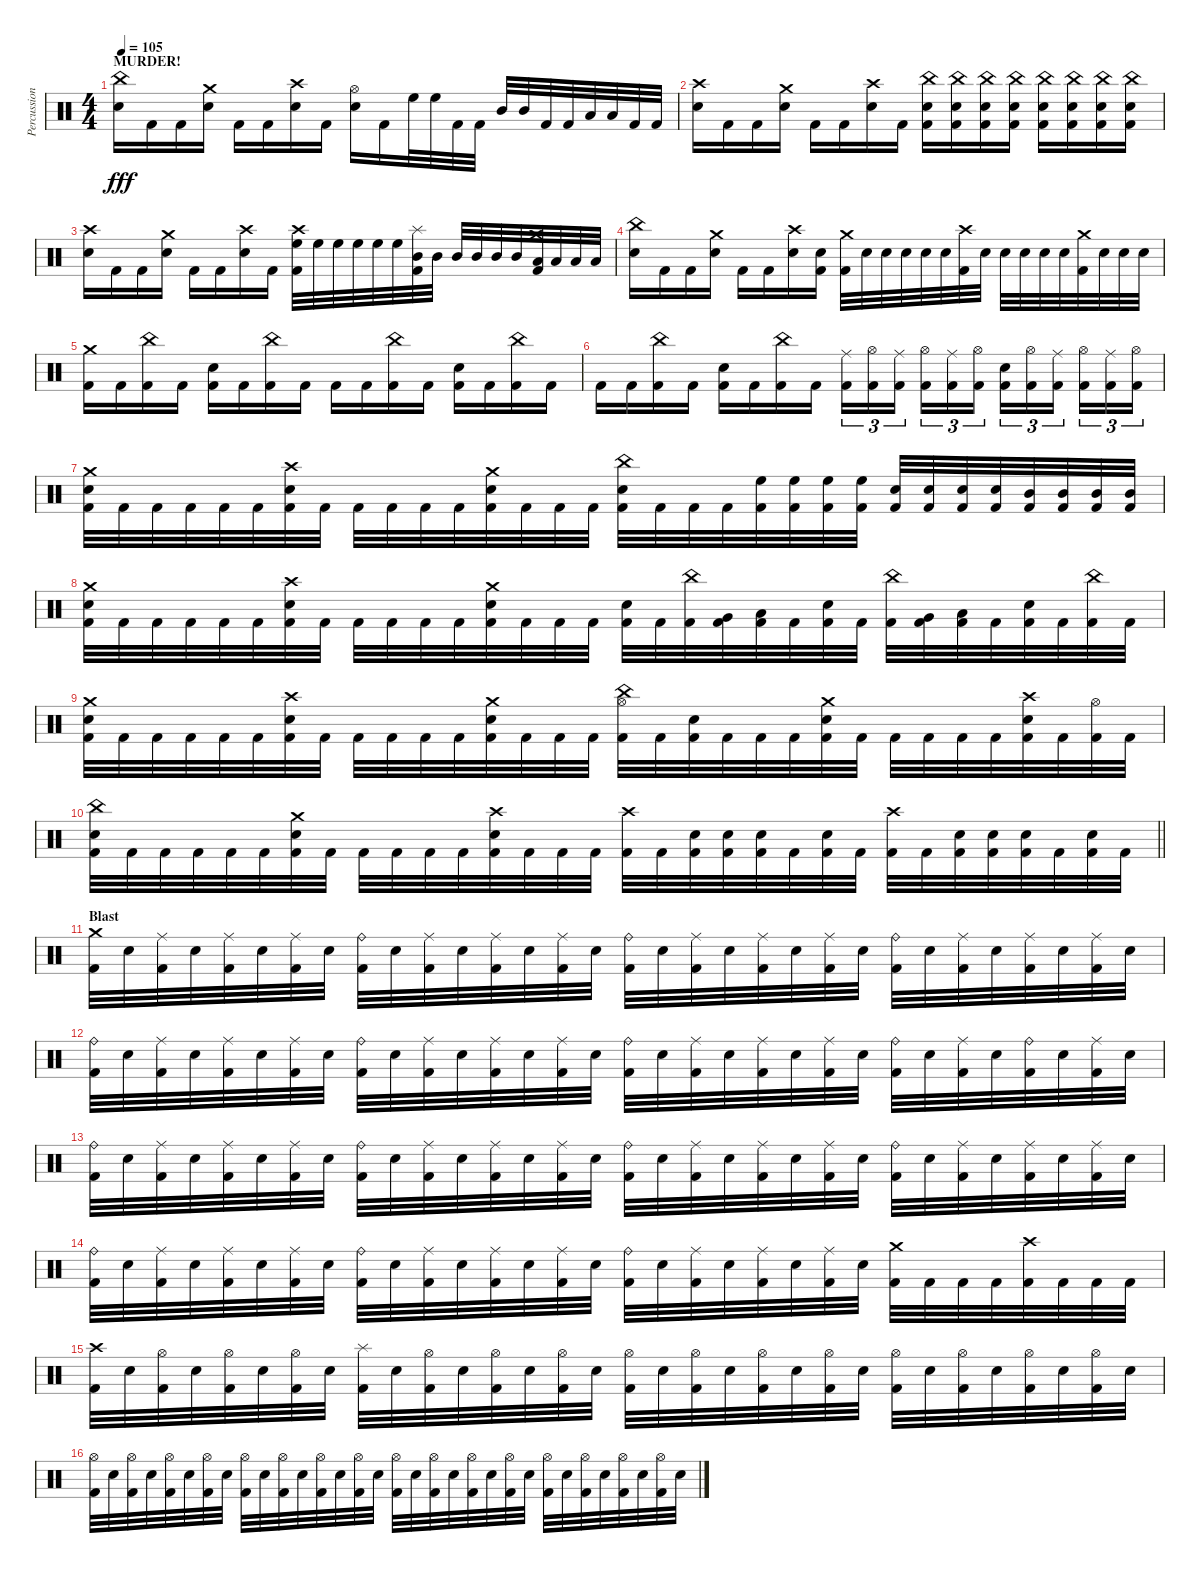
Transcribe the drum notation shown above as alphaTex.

\track ("Percussion" "Percussion") {instrument percussion}
\staff {score}
\articulation defaults
\ts (4 4)
\section ("" "MURDER!")
\tempo 105
\clef neutral
\ks c
("China (hit)" "Snare (hit) 2").16{dy fff} "Kick (hit) 2".16 "Kick (hit) 2".16 ("Crash medium (hit)" "Snare (hit) 2").16 "Kick (hit) 2".16 "Kick (hit) 2".16 ("Crash high (hit)" "Snare (hit) 2").16 "Kick (hit) 2".16 ("Snare (hit) 2" "Hi-Hat (open)").16 "Kick (hit) 2".16 "High Floor Tom (hit)".32 "High Floor Tom (hit)".32 "Kick (hit) 2".32 "Kick (hit) 2".32 "Mid Tom (hit)".32 "Mid Tom (hit)".32 "Kick (hit) 2".32 "Kick (hit) 2".32 "Low Tom (hit)".32 "Low Tom (hit)".32 "Kick (hit) 2".32 "Kick (hit) 2".32 |
("Crash high (hit)" "Snare (hit) 2").16 "Kick (hit) 2".16 "Kick (hit) 2".16 ("Crash medium (hit)" "Snare (hit) 2").16 "Kick (hit) 2".16 "Kick (hit) 2".16 ("Crash high (hit)" "Snare (hit) 2").16 "Kick (hit) 2".16 ("China (hit)" "Snare (hit) 2" "Kick (hit) 2").16 ("China (hit)" "Snare (hit) 2" "Kick (hit) 2").16 ("China (hit)" "Snare (hit) 2" "Kick (hit) 2").16 ("China (hit)" "Snare (hit) 2" "Kick (hit) 2").16 ("China (hit)" "Snare (hit) 2" "Kick (hit) 2").16 ("China (hit)" "Snare (hit) 2" "Kick (hit) 2").16 ("China (hit)" "Snare (hit) 2" "Kick (hit) 2").16 ("China (hit)" "Snare (hit) 2" "Kick (hit) 2").16 |
("Crash high (hit)" "Snare (hit) 2").16 "Kick (hit) 2".16 "Kick (hit) 2".16 ("Crash medium (hit)" "Snare (hit) 2").16 "Kick (hit) 2".16 "Kick (hit) 2".16 ("Crash high (hit)" "Snare (hit) 2").16 "Kick (hit) 2".16 ("Crash high (hit)" "High Floor Tom (hit)" "Kick (hit) 2").32 "High Floor Tom (hit)".32 "High Floor Tom (hit)".32 "High Floor Tom (hit)".32 "High Floor Tom (hit)".32 "High Floor Tom (hit)".32 ("Splash (hit)" "Mid Tom (hit)" "Kick (hit) 2").32 "Mid Tom (hit)".32 "Mid Tom (hit)".32 "Mid Tom (hit)".32 "Mid Tom (hit)".32 "Mid Tom (hit)".32 ("Crash medium (hit)" "Low Tom (hit)" "Kick (hit) 2").32 "Low Tom (hit)".32 "Low Tom (hit)".32 "Low Tom (hit)".32 |
("China (hit)" "Snare (hit) 2").16 "Kick (hit) 2".16 "Kick (hit) 2".16 ("Crash medium (hit)" "Snare (hit) 2").16 "Kick (hit) 2".16 "Kick (hit) 2".16 ("Crash high (hit)" "Snare (hit) 2").16 ("Snare (hit) 2" "Kick (hit) 2").16 ("Crash medium (hit)" "Kick (hit) 2").32 "Snare (hit) 2".32 "Snare (hit) 2".32 "Snare (hit) 2".32 "Snare (hit) 2".32 "Snare (hit) 2".32 ("Crash high (hit)" "Kick (hit) 2").32 "Snare (hit) 2".32 "Snare (hit) 2".32 "Snare (hit) 2".32 "Snare (hit) 2".32 "Snare (hit) 2".32 ("Crash medium (hit)" "Kick (hit) 2").32 "Snare (hit) 2".32 "Snare (hit) 2".32 "Snare (hit) 2".32 |
("Crash medium (hit)" "Kick (hit) 2").16 "Kick (hit) 2".16 ("China (hit)" "Kick (hit) 2").16 "Kick (hit) 2".16 ("Snare (hit) 2" "Kick (hit) 2").16 "Kick (hit) 2".16 ("China (hit)" "Kick (hit) 2").16 "Kick (hit) 2".16 "Kick (hit) 2".16 "Kick (hit) 2".16 ("China (hit)" "Kick (hit) 2").16 "Kick (hit) 2".16 ("Snare (hit) 2" "Kick (hit) 2").16 "Kick (hit) 2".16 ("China (hit)" "Kick (hit) 2").16 "Kick (hit) 2".16 |
"Kick (hit) 2".16 "Kick (hit) 2".16 ("China (hit)" "Kick (hit) 2").16 "Kick (hit) 2".16 ("Snare (hit) 2" "Kick (hit) 2").16 "Kick (hit) 2".16 ("China (hit)" "Kick (hit) 2").16 "Kick (hit) 2".16 ("Ride (middle)" "Kick (hit) 2").16{tu (3 2)} ("Hi-Hat (open)" "Kick (hit) 2").16{tu (3 2)} ("Ride (middle)" "Kick (hit) 2").16{tu (3 2) beam splitsecondary} ("Hi-Hat (open)" "Kick (hit) 2").16{tu (3 2)} ("Ride (middle)" "Kick (hit) 2").16{tu (3 2)} ("Hi-Hat (open)" "Kick (hit) 2").16{tu (3 2)} ("Snare (hit) 2" "Kick (hit) 2").16{tu (3 2)} ("Hi-Hat (open)" "Kick (hit) 2").16{tu (3 2)} ("Ride (middle)" "Kick (hit) 2").16{tu (3 2) beam splitsecondary} ("Hi-Hat (open)" "Kick (hit) 2").16{tu (3 2)} ("Ride (middle)" "Kick (hit) 2").16{tu (3 2)} ("Hi-Hat (open)" "Kick (hit) 2").16{tu (3 2)} |
("Crash medium (hit)" "Snare (hit) 2" "Kick (hit) 2").32 "Kick (hit) 2".32 "Kick (hit) 2".32 "Kick (hit) 2".32 "Kick (hit) 2".32 "Kick (hit) 2".32 ("Crash high (hit)" "Snare (hit) 2" "Kick (hit) 2").32 "Kick (hit) 2".32 "Kick (hit) 2".32 "Kick (hit) 2".32 "Kick (hit) 2".32 "Kick (hit) 2".32 ("Crash medium (hit)" "Snare (hit) 2" "Kick (hit) 2").32 "Kick (hit) 2".32 "Kick (hit) 2".32 "Kick (hit) 2".32 ("China (hit)" "Snare (hit) 2" "Kick (hit) 2").32 "Kick (hit) 2".32 "Kick (hit) 2".32 "Kick (hit) 2".32 ("High Floor Tom (hit)" "Kick (hit) 2").32 ("High Floor Tom (hit)" "Kick (hit) 2").32 ("High Floor Tom (hit)" "Kick (hit) 2").32 ("High Floor Tom (hit)" "Kick (hit) 2").32 ("Snare (hit) 2" "Kick (hit) 2").32 ("Snare (hit) 2" "Kick (hit) 2").32 ("Snare (hit) 2" "Kick (hit) 2").32 ("Snare (hit) 2" "Kick (hit) 2").32 ("Mid Tom (hit)" "Kick (hit) 2").32 ("Mid Tom (hit)" "Kick (hit) 2").32 ("Mid Tom (hit)" "Kick (hit) 2").32 ("Mid Tom (hit)" "Kick (hit) 2").32 |
("Crash medium (hit)" "Snare (hit) 2" "Kick (hit) 2").32 "Kick (hit) 2".32 "Kick (hit) 2".32 "Kick (hit) 2".32 "Kick (hit) 2".32 "Kick (hit) 2".32 ("Crash high (hit)" "Snare (hit) 2" "Kick (hit) 2").32 "Kick (hit) 2".32 "Kick (hit) 2".32 "Kick (hit) 2".32 "Kick (hit) 2".32 "Kick (hit) 2".32 ("Crash medium (hit)" "Snare (hit) 2" "Kick (hit) 2").32 "Kick (hit) 2".32 "Kick (hit) 2".32 "Kick (hit) 2".32 ("Snare (hit) 2" "Kick (hit) 2").32 "Kick (hit) 2".32 ("China (hit)" "Kick (hit) 2").32 ("Very Low Tom (hit)" "Kick (hit) 2").32 ("Low Floor Tom (hit)" "Kick (hit) 2").32 "Kick (hit) 2".32 ("Snare (hit) 2" "Kick (hit) 2").32 "Kick (hit) 2".32 ("China (hit)" "Kick (hit) 2").32 ("Very Low Tom (hit)" "Kick (hit) 2").32 ("Low Floor Tom (hit)" "Kick (hit) 2").32 "Kick (hit) 2".32 ("Snare (hit) 2" "Kick (hit) 2").32 "Kick (hit) 2".32 ("China (hit)" "Kick (hit) 2").32 "Kick (hit) 2".32 |
("Crash medium (hit)" "Snare (hit) 2" "Kick (hit) 2").32 "Kick (hit) 2".32 "Kick (hit) 2".32 "Kick (hit) 2".32 "Kick (hit) 2".32 "Kick (hit) 2".32 ("Crash high (hit)" "Snare (hit) 2" "Kick (hit) 2").32 "Kick (hit) 2".32 "Kick (hit) 2".32 "Kick (hit) 2".32 "Kick (hit) 2".32 "Kick (hit) 2".32 ("Crash medium (hit)" "Snare (hit) 2" "Kick (hit) 2").32 "Kick (hit) 2".32 "Kick (hit) 2".32 "Kick (hit) 2".32 ("China (hit)" "Hi-Hat (open)" "Kick (hit) 2").32 "Kick (hit) 2".32 ("Snare (hit) 2" "Kick (hit) 2").32 "Kick (hit) 2".32 "Kick (hit) 2".32 "Kick (hit) 2".32 ("Crash medium (hit)" "Snare (hit) 2" "Kick (hit) 2").32 "Kick (hit) 2".32 "Kick (hit) 2".32 "Kick (hit) 2".32 "Kick (hit) 2".32 "Kick (hit) 2".32 ("Crash high (hit)" "Snare (hit) 2" "Kick (hit) 2").32 "Kick (hit) 2".32 ("Hi-Hat (open)" "Kick (hit) 2").32 "Kick (hit) 2".32 |
\barLineRight lightlight
("China (hit)" "Snare (hit) 2" "Kick (hit) 2").32 "Kick (hit) 2".32 "Kick (hit) 2".32 "Kick (hit) 2".32 "Kick (hit) 2".32 "Kick (hit) 2".32 ("Crash medium (hit)" "Snare (hit) 2" "Kick (hit) 2").32 "Kick (hit) 2".32 "Kick (hit) 2".32 "Kick (hit) 2".32 "Kick (hit) 2".32 "Kick (hit) 2".32 ("Crash high (hit)" "Snare (hit) 2" "Kick (hit) 2").32 "Kick (hit) 2".32 "Kick (hit) 2".32 "Kick (hit) 2".32 ("Crash high (hit)" "Kick (hit) 2").32 "Kick (hit) 2".32 ("Snare (hit) 2" "Kick (hit) 2").32 ("Snare (hit) 2" "Kick (hit) 2").32 ("Snare (hit) 2" "Kick (hit) 2").32 "Kick (hit) 2".32 ("Snare (hit) 2" "Kick (hit) 2").32 "Kick (hit) 2".32 ("Crash high (hit)" "Kick (hit) 2").32 "Kick (hit) 2".32 ("Snare (hit) 2" "Kick (hit) 2").32 ("Snare (hit) 2" "Kick (hit) 2").32 ("Snare (hit) 2" "Kick (hit) 2").32 "Kick (hit) 2".32 ("Snare (hit) 2" "Kick (hit) 2").32 "Kick (hit) 2".32 |
\section ("" "Blast")
("Crash medium (hit)" "Kick (hit) 2").32 "Snare (hit) 2".32 ("Ride (middle)" "Kick (hit) 2").32 "Snare (hit) 2".32 ("Ride (middle)" "Kick (hit) 2").32 "Snare (hit) 2".32 ("Ride (middle)" "Kick (hit) 2").32 "Snare (hit) 2".32 ("Ride (bell)" "Kick (hit) 2").32 "Snare (hit) 2".32 ("Ride (middle)" "Kick (hit) 2").32 "Snare (hit) 2".32 ("Ride (middle)" "Kick (hit) 2").32 "Snare (hit) 2".32 ("Ride (middle)" "Kick (hit) 2").32 "Snare (hit) 2".32 ("Ride (bell)" "Kick (hit) 2").32 "Snare (hit) 2".32 ("Ride (middle)" "Kick (hit) 2").32 "Snare (hit) 2".32 ("Ride (middle)" "Kick (hit) 2").32 "Snare (hit) 2".32 ("Ride (middle)" "Kick (hit) 2").32 "Snare (hit) 2".32 ("Ride (bell)" "Kick (hit) 2").32 "Snare (hit) 2".32 ("Ride (middle)" "Kick (hit) 2").32 "Snare (hit) 2".32 ("Ride (middle)" "Kick (hit) 2").32 "Snare (hit) 2".32 ("Ride (middle)" "Kick (hit) 2").32 "Snare (hit) 2".32 |
("Ride (bell)" "Kick (hit) 2").32 "Snare (hit) 2".32 ("Ride (middle)" "Kick (hit) 2").32 "Snare (hit) 2".32 ("Ride (middle)" "Kick (hit) 2").32 "Snare (hit) 2".32 ("Ride (middle)" "Kick (hit) 2").32 "Snare (hit) 2".32 ("Ride (bell)" "Kick (hit) 2").32 "Snare (hit) 2".32 ("Ride (middle)" "Kick (hit) 2").32 "Snare (hit) 2".32 ("Ride (middle)" "Kick (hit) 2").32 "Snare (hit) 2".32 ("Ride (middle)" "Kick (hit) 2").32 "Snare (hit) 2".32 ("Ride (bell)" "Kick (hit) 2").32 "Snare (hit) 2".32 ("Ride (middle)" "Kick (hit) 2").32 "Snare (hit) 2".32 ("Ride (middle)" "Kick (hit) 2").32 "Snare (hit) 2".32 ("Ride (middle)" "Kick (hit) 2").32 "Snare (hit) 2".32 ("Ride (bell)" "Kick (hit) 2").32 "Snare (hit) 2".32 ("Ride (middle)" "Kick (hit) 2").32 "Snare (hit) 2".32 ("Ride (bell)" "Kick (hit) 2").32 "Snare (hit) 2".32 ("Ride (middle)" "Kick (hit) 2").32 "Snare (hit) 2".32 |
("Ride (bell)" "Kick (hit) 2").32 "Snare (hit) 2".32 ("Ride (middle)" "Kick (hit) 2").32 "Snare (hit) 2".32 ("Ride (middle)" "Kick (hit) 2").32 "Snare (hit) 2".32 ("Ride (middle)" "Kick (hit) 2").32 "Snare (hit) 2".32 ("Ride (bell)" "Kick (hit) 2").32 "Snare (hit) 2".32 ("Ride (middle)" "Kick (hit) 2").32 "Snare (hit) 2".32 ("Ride (middle)" "Kick (hit) 2").32 "Snare (hit) 2".32 ("Ride (middle)" "Kick (hit) 2").32 "Snare (hit) 2".32 ("Ride (bell)" "Kick (hit) 2").32 "Snare (hit) 2".32 ("Ride (middle)" "Kick (hit) 2").32 "Snare (hit) 2".32 ("Ride (middle)" "Kick (hit) 2").32 "Snare (hit) 2".32 ("Ride (middle)" "Kick (hit) 2").32 "Snare (hit) 2".32 ("Ride (bell)" "Kick (hit) 2").32 "Snare (hit) 2".32 ("Ride (middle)" "Kick (hit) 2").32 "Snare (hit) 2".32 ("Ride (middle)" "Kick (hit) 2").32 "Snare (hit) 2".32 ("Ride (middle)" "Kick (hit) 2").32 "Snare (hit) 2".32 |
("Ride (bell)" "Kick (hit) 2").32 "Snare (hit) 2".32 ("Ride (middle)" "Kick (hit) 2").32 "Snare (hit) 2".32 ("Ride (middle)" "Kick (hit) 2").32 "Snare (hit) 2".32 ("Ride (middle)" "Kick (hit) 2").32 "Snare (hit) 2".32 ("Ride (bell)" "Kick (hit) 2").32 "Snare (hit) 2".32 ("Ride (middle)" "Kick (hit) 2").32 "Snare (hit) 2".32 ("Ride (middle)" "Kick (hit) 2").32 "Snare (hit) 2".32 ("Ride (middle)" "Kick (hit) 2").32 "Snare (hit) 2".32 ("Ride (bell)" "Kick (hit) 2").32 "Snare (hit) 2".32 ("Ride (middle)" "Kick (hit) 2").32 "Snare (hit) 2".32 ("Ride (middle)" "Kick (hit) 2").32 "Snare (hit) 2".32 ("Ride (middle)" "Kick (hit) 2").32 "Snare (hit) 2".32 ("Crash medium (hit)" "Kick (hit) 2").32 "Kick (hit) 2".32 "Kick (hit) 2".32 "Kick (hit) 2".32 ("Crash high (hit)" "Kick (hit) 2").32 "Kick (hit) 2".32 "Kick (hit) 2".32 "Kick (hit) 2".32 |
("Crash high (hit)" "Kick (hit) 2").32 "Snare (hit) 2".32 ("Hi-Hat (open)" "Kick (hit) 2").32 "Snare (hit) 2".32 ("Hi-Hat (open)" "Kick (hit) 2").32 "Snare (hit) 2".32 ("Hi-Hat (open)" "Kick (hit) 2").32 "Snare (hit) 2".32 ("Splash (hit)" "Kick (hit) 2").32 "Snare (hit) 2".32 ("Hi-Hat (open)" "Kick (hit) 2").32 "Snare (hit) 2".32 ("Hi-Hat (open)" "Kick (hit) 2").32 "Snare (hit) 2".32 ("Hi-Hat (open)" "Kick (hit) 2").32 "Snare (hit) 2".32 ("Hi-Hat (open)" "Kick (hit) 2").32 "Snare (hit) 2".32 ("Hi-Hat (open)" "Kick (hit) 2").32 "Snare (hit) 2".32 ("Hi-Hat (open)" "Kick (hit) 2").32 "Snare (hit) 2".32 ("Hi-Hat (open)" "Kick (hit) 2").32 "Snare (hit) 2".32 ("Hi-Hat (open)" "Kick (hit) 2").32 "Snare (hit) 2".32 ("Hi-Hat (open)" "Kick (hit) 2").32 "Snare (hit) 2".32 ("Hi-Hat (open)" "Kick (hit) 2").32 "Snare (hit) 2".32 ("Hi-Hat (open)" "Kick (hit) 2").32 "Snare (hit) 2".32 |
("Hi-Hat (open)" "Kick (hit) 2").32 "Snare (hit) 2".32 ("Hi-Hat (open)" "Kick (hit) 2").32 "Snare (hit) 2".32 ("Hi-Hat (open)" "Kick (hit) 2").32 "Snare (hit) 2".32 ("Hi-Hat (open)" "Kick (hit) 2").32 "Snare (hit) 2".32 ("Hi-Hat (open)" "Kick (hit) 2").32 "Snare (hit) 2".32 ("Hi-Hat (open)" "Kick (hit) 2").32 "Snare (hit) 2".32 ("Hi-Hat (open)" "Kick (hit) 2").32 "Snare (hit) 2".32 ("Hi-Hat (open)" "Kick (hit) 2").32 "Snare (hit) 2".32 ("Hi-Hat (open)" "Kick (hit) 2").32 "Snare (hit) 2".32 ("Hi-Hat (open)" "Kick (hit) 2").32 "Snare (hit) 2".32 ("Hi-Hat (open)" "Kick (hit) 2").32 "Snare (hit) 2".32 ("Hi-Hat (open)" "Kick (hit) 2").32 "Snare (hit) 2".32 ("Hi-Hat (open)" "Kick (hit) 2").32 "Snare (hit) 2".32 ("Hi-Hat (open)" "Kick (hit) 2").32 "Snare (hit) 2".32 ("Hi-Hat (open)" "Kick (hit) 2").32 "Snare (hit) 2".32 ("Hi-Hat (open)" "Kick (hit) 2").32 "Snare (hit) 2".32
